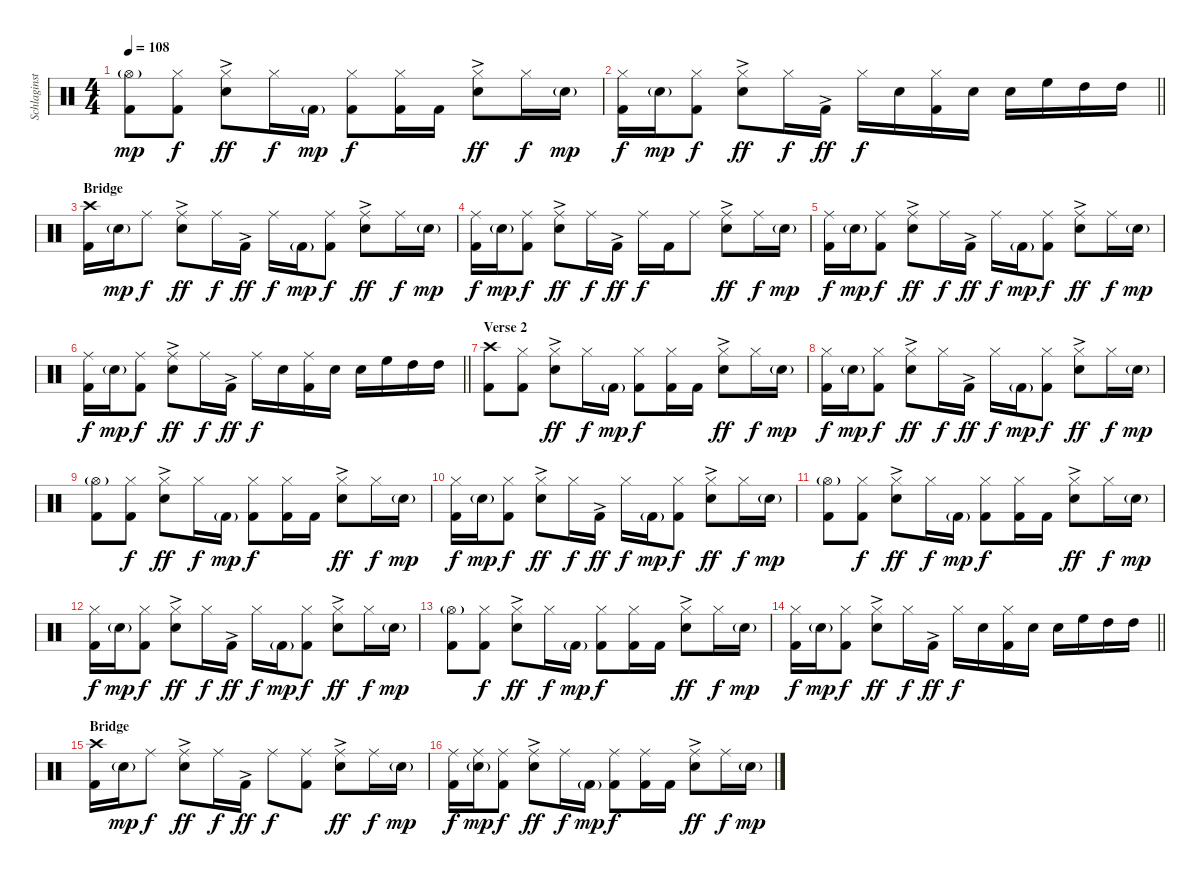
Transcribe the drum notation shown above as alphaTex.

\track ("Schlaginstrumente - Auswahl" "Schlaginst") {instrument percussion}
\staff {score}
\articulation defaults
\ts (4 4)
\tempo 108
\clef neutral
\ks c
("Hi-Hat (open)"{g} "Kick (hit) 2").8{dy mp} ("Hi-Hat (closed)" "Kick (hit) 2").8{dy f} ("Hi-Hat (closed)" "Snare (hit) 2"{ac}).8{dy ff} "Hi-Hat (closed)".16{dy f} "Kick (hit) 2"{g}.16{dy mp} ("Hi-Hat (closed)" "Kick (hit) 2").8{dy f} ("Hi-Hat (closed)" "Kick (hit) 2").16 "Kick (hit) 2".16 ("Hi-Hat (closed)" "Snare (hit) 2"{ac}).8{dy ff} "Hi-Hat (closed)".16{dy f} "Snare (hit) 2"{g}.16{dy mp} |
\barLineRight lightlight
("Hi-Hat (closed)" "Kick (hit) 2").16{dy f} "Snare (hit) 2"{g}.16{dy mp} ("Hi-Hat (closed)" "Kick (hit) 2").8{dy f} ("Hi-Hat (closed)" "Snare (hit) 2"{ac}).8{dy ff} "Hi-Hat (closed)".16{dy f} "Kick (hit) 2"{ac}.16{dy ff} "Hi-Hat (closed)".16{dy f} "Snare (hit) 2".16 ("Hi-Hat (closed)" "Kick (hit) 2").16 "Snare (hit) 2".16 "Snare (hit) 2".16 "High Floor Tom (hit)".16 "High Tom (hit)".16 "High Tom (hit)".16 |
\section ("" "Bridge")
("Crash high (hit)" "Kick (hit) 2").16 "Snare (hit) 2"{g}.16{dy mp} "Ride (middle)".8{dy f} ("Ride (middle)" "Snare (hit) 2"{ac}).8{dy ff} "Ride (middle)".16{dy f} "Kick (hit) 2"{ac}.16{dy ff} "Ride (middle)".16{dy f} "Kick (hit) 2"{g}.16{dy mp} ("Ride (middle)" "Kick (hit) 2").8{dy f} ("Ride (middle)" "Snare (hit) 2"{ac}).8{dy ff} "Ride (middle)".16{dy f} "Snare (hit) 2"{g}.16{dy mp} |
("Ride (middle)" "Kick (hit) 2").16{dy f} "Snare (hit) 2"{g}.16{dy mp} ("Ride (middle)" "Kick (hit) 2").8{dy f} ("Ride (middle)" "Snare (hit) 2"{ac}).8{dy ff} "Ride (middle)".16{dy f} "Kick (hit) 2"{ac}.16{dy ff} "Ride (middle)".16{dy f} "Kick (hit) 2".16 "Ride (middle)".8 ("Ride (middle)" "Snare (hit) 2"{ac}).8{dy ff} "Ride (middle)".16{dy f} "Snare (hit) 2"{g}.16{dy mp} |
("Ride (middle)" "Kick (hit) 2").16{dy f} "Snare (hit) 2"{g}.16{dy mp} ("Ride (middle)" "Kick (hit) 2").8{dy f} ("Ride (middle)" "Snare (hit) 2"{ac}).8{dy ff} "Ride (middle)".16{dy f} "Kick (hit) 2"{ac}.16{dy ff} "Ride (middle)".16{dy f} "Kick (hit) 2"{g}.16{dy mp} ("Ride (middle)" "Kick (hit) 2").8{dy f} ("Ride (middle)" "Snare (hit) 2"{ac}).8{dy ff} "Ride (middle)".16{dy f} "Snare (hit) 2"{g}.16{dy mp} |
\barLineRight lightlight
("Ride (middle)" "Kick (hit) 2").16{dy f} "Snare (hit) 2"{g}.16{dy mp} ("Ride (middle)" "Kick (hit) 2").8{dy f} ("Ride (middle)" "Snare (hit) 2"{ac}).8{dy ff} "Ride (middle)".16{dy f} "Kick (hit) 2"{ac}.16{dy ff} "Ride (middle)".16{dy f} "Snare (hit) 2".16 ("Ride (middle)" "Kick (hit) 2").16 "Snare (hit) 2".16 "Snare (hit) 2".16 "High Floor Tom (hit)".16 "High Tom (hit)".16 "High Tom (hit)".16 |
\section ("" "Verse 2")
("Crash high (hit)" "Kick (hit) 2").8 ("Hi-Hat (closed)" "Kick (hit) 2").8 ("Hi-Hat (closed)" "Snare (hit) 2"{ac}).8{dy ff} "Hi-Hat (closed)".16{dy f} "Kick (hit) 2"{g}.16{dy mp} ("Hi-Hat (closed)" "Kick (hit) 2").8{dy f} ("Hi-Hat (closed)" "Kick (hit) 2").16 "Kick (hit) 2".16 ("Hi-Hat (closed)" "Snare (hit) 2"{ac}).8{dy ff} "Hi-Hat (closed)".16{dy f} "Snare (hit) 2"{g}.16{dy mp} |
("Hi-Hat (closed)" "Kick (hit) 2").16{dy f} "Snare (hit) 2"{g}.16{dy mp} ("Hi-Hat (closed)" "Kick (hit) 2").8{dy f} ("Hi-Hat (closed)" "Snare (hit) 2"{ac}).8{dy ff} "Hi-Hat (closed)".16{dy f} "Kick (hit) 2"{ac}.16{dy ff} "Hi-Hat (closed)".16{dy f} "Kick (hit) 2"{g}.16{dy mp} ("Hi-Hat (closed)" "Kick (hit) 2").8{dy f} ("Hi-Hat (closed)" "Snare (hit) 2"{ac}).8{dy ff} "Hi-Hat (closed)".16{dy f} "Snare (hit) 2"{g}.16{dy mp} |
("Hi-Hat (open)"{g} "Kick (hit) 2").8 ("Hi-Hat (closed)" "Kick (hit) 2").8{dy f} ("Hi-Hat (closed)" "Snare (hit) 2"{ac}).8{dy ff} "Hi-Hat (closed)".16{dy f} "Kick (hit) 2"{g}.16{dy mp} ("Hi-Hat (closed)" "Kick (hit) 2").8{dy f} ("Hi-Hat (closed)" "Kick (hit) 2").16 "Kick (hit) 2".16 ("Hi-Hat (closed)" "Snare (hit) 2"{ac}).8{dy ff} "Hi-Hat (closed)".16{dy f} "Snare (hit) 2"{g}.16{dy mp} |
("Hi-Hat (closed)" "Kick (hit) 2").16{dy f} "Snare (hit) 2"{g}.16{dy mp} ("Hi-Hat (closed)" "Kick (hit) 2").8{dy f} ("Hi-Hat (closed)" "Snare (hit) 2"{ac}).8{dy ff} "Hi-Hat (closed)".16{dy f} "Kick (hit) 2"{ac}.16{dy ff} "Hi-Hat (closed)".16{dy f} "Kick (hit) 2"{g}.16{dy mp} ("Hi-Hat (closed)" "Kick (hit) 2").8{dy f} ("Hi-Hat (closed)" "Snare (hit) 2"{ac}).8{dy ff} "Hi-Hat (closed)".16{dy f} "Snare (hit) 2"{g}.16{dy mp} |
("Hi-Hat (open)"{g} "Kick (hit) 2").8 ("Hi-Hat (closed)" "Kick (hit) 2").8{dy f} ("Hi-Hat (closed)" "Snare (hit) 2"{ac}).8{dy ff} "Hi-Hat (closed)".16{dy f} "Kick (hit) 2"{g}.16{dy mp} ("Hi-Hat (closed)" "Kick (hit) 2").8{dy f} ("Hi-Hat (closed)" "Kick (hit) 2").16 "Kick (hit) 2".16 ("Hi-Hat (closed)" "Snare (hit) 2"{ac}).8{dy ff} "Hi-Hat (closed)".16{dy f} "Snare (hit) 2"{g}.16{dy mp} |
("Hi-Hat (closed)" "Kick (hit) 2").16{dy f} "Snare (hit) 2"{g}.16{dy mp} ("Hi-Hat (closed)" "Kick (hit) 2").8{dy f} ("Hi-Hat (closed)" "Snare (hit) 2"{ac}).8{dy ff} "Hi-Hat (closed)".16{dy f} "Kick (hit) 2"{ac}.16{dy ff} "Hi-Hat (closed)".16{dy f} "Kick (hit) 2"{g}.16{dy mp} ("Hi-Hat (closed)" "Kick (hit) 2").8{dy f} ("Hi-Hat (closed)" "Snare (hit) 2"{ac}).8{dy ff} "Hi-Hat (closed)".16{dy f} "Snare (hit) 2"{g}.16{dy mp} |
("Hi-Hat (open)"{g} "Kick (hit) 2").8 ("Hi-Hat (closed)" "Kick (hit) 2").8{dy f} ("Hi-Hat (closed)" "Snare (hit) 2"{ac}).8{dy ff} "Hi-Hat (closed)".16{dy f} "Kick (hit) 2"{g}.16{dy mp} ("Hi-Hat (closed)" "Kick (hit) 2").8{dy f} ("Hi-Hat (closed)" "Kick (hit) 2").16 "Kick (hit) 2".16 ("Hi-Hat (closed)" "Snare (hit) 2"{ac}).8{dy ff} "Hi-Hat (closed)".16{dy f} "Snare (hit) 2"{g}.16{dy mp} |
\barLineRight lightlight
("Hi-Hat (closed)" "Kick (hit) 2").16{dy f} "Snare (hit) 2"{g}.16{dy mp} ("Hi-Hat (closed)" "Kick (hit) 2").8{dy f} ("Hi-Hat (closed)" "Snare (hit) 2"{ac}).8{dy ff} "Hi-Hat (closed)".16{dy f} "Kick (hit) 2"{ac}.16{dy ff} "Hi-Hat (closed)".16{dy f} "Snare (hit) 2".16 ("Hi-Hat (closed)" "Kick (hit) 2").16 "Snare (hit) 2".16 "Snare (hit) 2".16 "High Floor Tom (hit)".16 "High Tom (hit)".16 "High Tom (hit)".16 |
\section ("" "Bridge")
("Crash high (hit)" "Kick (hit) 2").16 "Snare (hit) 2"{g}.16{dy mp} "Ride (middle)".8{dy f} ("Ride (middle)" "Snare (hit) 2"{ac}).8{dy ff} "Ride (middle)".16{dy f} "Kick (hit) 2"{ac}.16{dy ff} "Ride (middle)".8{dy f} ("Ride (middle)" "Kick (hit) 2").8 ("Ride (middle)" "Snare (hit) 2"{ac}).8{dy ff} "Ride (middle)".16{dy f} "Snare (hit) 2"{g}.16{dy mp} |
("Ride (middle)" "Kick (hit) 2").16{dy f} ("Ride (middle)" "Snare (hit) 2"{g}).16{dy mp} ("Ride (middle)" "Kick (hit) 2").8{dy f} ("Ride (middle)" "Snare (hit) 2"{ac}).8{dy ff} "Ride (middle)".16{dy f} "Kick (hit) 2"{g}.16{dy mp} ("Ride (middle)" "Kick (hit) 2").8{dy f} ("Ride (middle)" "Kick (hit) 2").16 "Kick (hit) 2".16 ("Ride (middle)" "Snare (hit) 2"{ac}).8{dy ff} "Ride (middle)".16{dy f} "Snare (hit) 2"{g}.16{dy mp}
